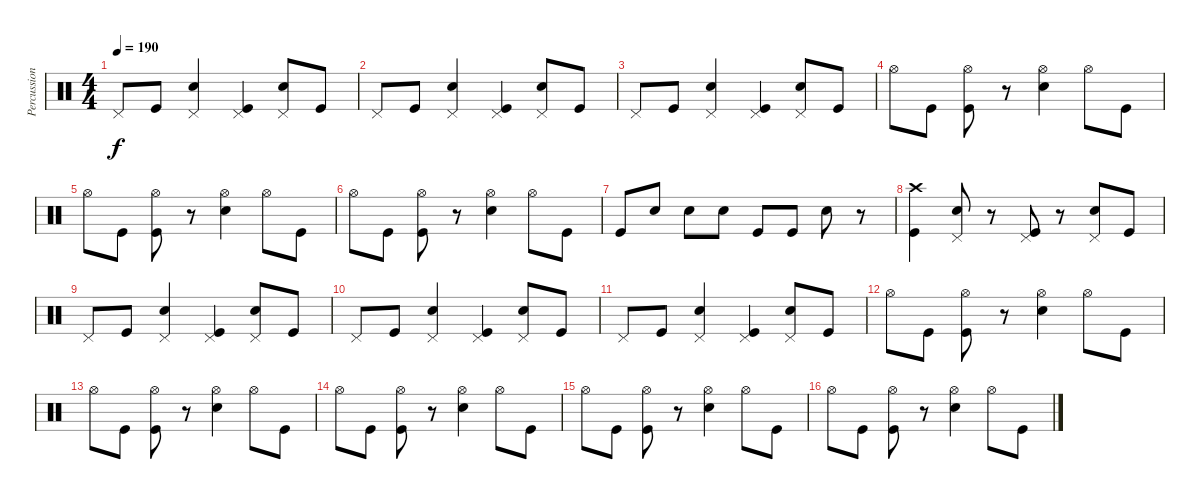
\track ("Percussion" "Percussion") {mute instrument percussion}
\staff {score}
\articulation defaults
\ts (4 4)
\tempo 190
\clef neutral
\ks c "Pedal Hi-Hat (hit)".8{dy f} "Kick (hit)".8
("Pedal Hi-Hat (hit)" "Snare (hit) 2").4 ("Pedal Hi-Hat (hit)" "Kick (hit)").4 ("Pedal Hi-Hat (hit)" "Snare (hit) 2").8 "Kick (hit)".8 |
"Pedal Hi-Hat (hit)".8 "Kick (hit)".8 ("Pedal Hi-Hat (hit)" "Snare (hit) 2").4 ("Pedal Hi-Hat (hit)" "Kick (hit)").4 ("Pedal Hi-Hat (hit)" "Snare (hit) 2").8 "Kick (hit)".8 |
"Pedal Hi-Hat (hit)".8 "Kick (hit)".8 ("Pedal Hi-Hat (hit)" "Snare (hit) 2").4 ("Pedal Hi-Hat (hit)" "Kick (hit)").4 ("Pedal Hi-Hat (hit)" "Snare (hit) 2").8 "Kick (hit)".8 |
"Hi-Hat (open)".8 "Kick (hit)".8 ("Hi-Hat (open)" "Kick (hit)").8 r.8 ("Hi-Hat (open)" "Snare (hit) 2").4 "Hi-Hat (open)".8 "Kick (hit)".8 |
"Hi-Hat (open)".8 "Kick (hit)".8 ("Hi-Hat (open)" "Kick (hit)").8 r.8 ("Hi-Hat (open)" "Snare (hit) 2").4 "Hi-Hat (open)".8 "Kick (hit)".8 |
"Hi-Hat (open)".8 "Kick (hit)".8 ("Hi-Hat (open)" "Kick (hit)").8 r.8 ("Hi-Hat (open)" "Snare (hit) 2").4 "Hi-Hat (open)".8 "Kick (hit)".8 |
"Kick (hit)".8 "Snare (hit) 2".8 "Snare (hit) 2".8 "Snare (hit) 2".8 "Kick (hit)".8 "Kick (hit)".8 "Snare (hit) 2".8 r.8 |
("Crash high (hit)" "Kick (hit)").4 ("Pedal Hi-Hat (hit)" "Snare (hit) 2").8 r.8 ("Pedal Hi-Hat (hit)" "Kick (hit)").8 r.8 ("Pedal Hi-Hat (hit)" "Snare (hit) 2").8 "Kick (hit)".8 |
"Pedal Hi-Hat (hit)".8 "Kick (hit)".8 ("Pedal Hi-Hat (hit)" "Snare (hit) 2").4 ("Pedal Hi-Hat (hit)" "Kick (hit)").4 ("Pedal Hi-Hat (hit)" "Snare (hit) 2").8 "Kick (hit)".8 |
"Pedal Hi-Hat (hit)".8 "Kick (hit)".8 ("Pedal Hi-Hat (hit)" "Snare (hit) 2").4 ("Pedal Hi-Hat (hit)" "Kick (hit)").4 ("Pedal Hi-Hat (hit)" "Snare (hit) 2").8 "Kick (hit)".8 |
"Pedal Hi-Hat (hit)".8 "Kick (hit)".8 ("Pedal Hi-Hat (hit)" "Snare (hit) 2").4 ("Pedal Hi-Hat (hit)" "Kick (hit)").4 ("Pedal Hi-Hat (hit)" "Snare (hit) 2").8 "Kick (hit)".8 |
"Hi-Hat (open)".8 "Kick (hit)".8 ("Hi-Hat (open)" "Kick (hit)").8 r.8 ("Hi-Hat (open)" "Snare (hit) 2").4 "Hi-Hat (open)".8 "Kick (hit)".8 |
"Hi-Hat (open)".8 "Kick (hit)".8 ("Hi-Hat (open)" "Kick (hit)").8 r.8 ("Hi-Hat (open)" "Snare (hit) 2").4 "Hi-Hat (open)".8 "Kick (hit)".8 |
"Hi-Hat (open)".8 "Kick (hit)".8 ("Hi-Hat (open)" "Kick (hit)").8 r.8 ("Hi-Hat (open)" "Snare (hit) 2").4 "Hi-Hat (open)".8 "Kick (hit)".8 |
"Hi-Hat (open)".8 "Kick (hit)".8 ("Hi-Hat (open)" "Kick (hit)").8 r.8 ("Hi-Hat (open)" "Snare (hit) 2").4 "Hi-Hat (open)".8 "Kick (hit)".8 |
"Hi-Hat (open)".8 "Kick (hit)".8 ("Hi-Hat (open)" "Kick (hit)").8 r.8 ("Hi-Hat (open)" "Snare (hit) 2").4 "Hi-Hat (open)".8 "Kick (hit)".8
